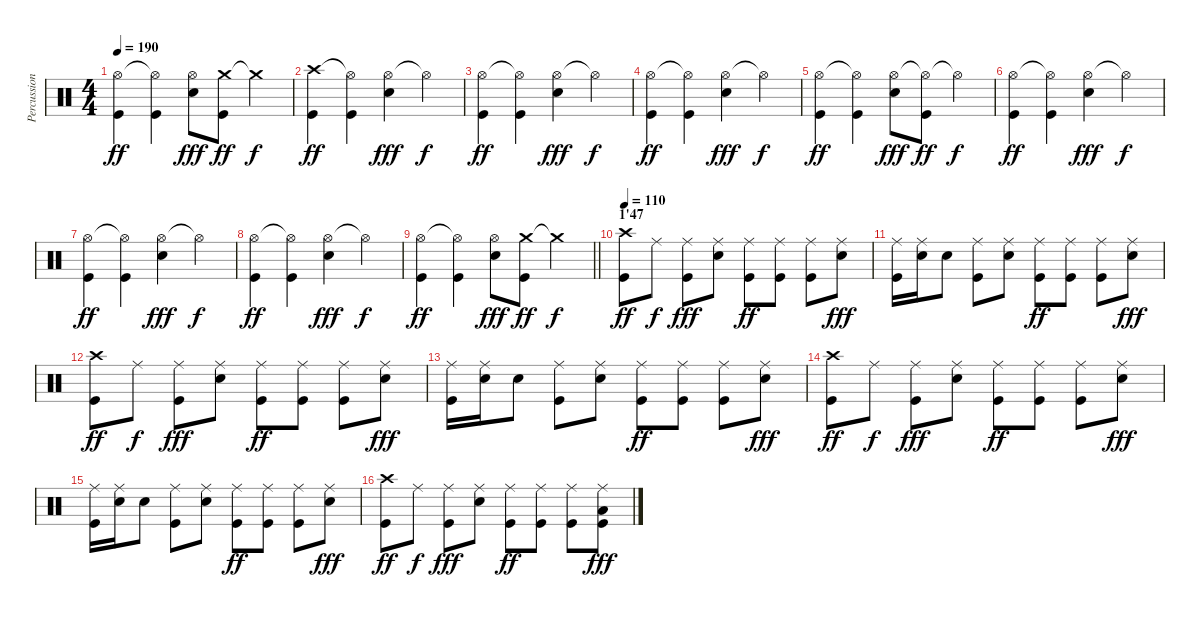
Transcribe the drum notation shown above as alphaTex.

\track ("Percussion" "Percussion") {instrument percussion}
\staff {score}
\articulation defaults
\ts (4 4)
\tempo 190
\clef neutral
\ks c
("Hi-Hat (open)" "Kick (hit)").4{dy ff} ("Hi-Hat (open)"{t} "Kick (hit)").4 ("Hi-Hat (open)" "Electric Snare (hit)").8{dy fff} ("Crash medium (hit)" "Kick (hit)").8{dy ff} "Crash medium (hit)"{t}.4{dy f} |
("Crash high (hit)" "Kick (hit)").4{dy ff} ("Hi-Hat (open)"{t} "Kick (hit)").4 ("Hi-Hat (open)" "Electric Snare (hit)").4{dy fff} "Hi-Hat (open)"{t}.4{dy f} |
("Hi-Hat (open)" "Kick (hit)").4{dy ff} ("Hi-Hat (open)"{t} "Kick (hit)").4 ("Hi-Hat (open)" "Electric Snare (hit)").4{dy fff} "Hi-Hat (open)"{t}.4{dy f} |
("Hi-Hat (open)" "Kick (hit)").4{dy ff} ("Hi-Hat (open)"{t} "Kick (hit)").4 ("Hi-Hat (open)" "Electric Snare (hit)").4{dy fff} "Hi-Hat (open)"{t}.4{dy f} |
("Hi-Hat (open)" "Kick (hit)").4{dy ff} ("Hi-Hat (open)"{t} "Kick (hit)").4 ("Hi-Hat (open)" "Electric Snare (hit)").8{dy fff} ("Hi-Hat (open)"{t} "Kick (hit)").8{dy ff} "Hi-Hat (open)"{t}.4{dy f} |
("Hi-Hat (open)" "Kick (hit)").4{dy ff} ("Hi-Hat (open)"{t} "Kick (hit)").4 ("Hi-Hat (open)" "Electric Snare (hit)").4{dy fff} "Hi-Hat (open)"{t}.4{dy f} |
("Hi-Hat (open)" "Kick (hit)").4{dy ff} ("Hi-Hat (open)"{t} "Kick (hit)").4 ("Hi-Hat (open)" "Electric Snare (hit)").4{dy fff} "Hi-Hat (open)"{t}.4{dy f} |
("Hi-Hat (open)" "Kick (hit)").4{dy ff} ("Hi-Hat (open)"{t} "Kick (hit)").4 ("Hi-Hat (open)" "Electric Snare (hit)").4{dy fff} "Hi-Hat (open)"{t}.4{dy f} |
\barLineRight lightlight
("Hi-Hat (open)" "Kick (hit)").4{dy ff} ("Hi-Hat (open)"{t} "Kick (hit)").4 ("Hi-Hat (open)" "Electric Snare (hit)").8{dy fff} ("Crash medium (hit)" "Kick (hit)").8{dy ff} "Crash medium (hit)"{t}.4{dy f} |
\section ("" "1'47")
\tempo 110
("Crash high (hit)" "Kick (hit)").8{dy ff} "Ride (middle)".8{dy f} ("Ride (middle)" "Kick (hit)").8{dy fff} ("Ride (middle)" "Electric Snare (hit)").8 ("Ride (middle)" "Kick (hit)").8{dy ff} ("Ride (middle)" "Kick (hit)").8 ("Ride (middle)" "Kick (hit)").8 ("Ride (middle)" "Electric Snare (hit)").8{dy fff} |
("Ride (middle)" "Kick (hit)").16 ("Ride (middle)" "Electric Snare (hit)").16 "Electric Snare (hit)".8 ("Ride (middle)" "Kick (hit)").8 ("Ride (middle)" "Electric Snare (hit)").8 ("Ride (middle)" "Kick (hit)").8{dy ff} ("Ride (middle)" "Kick (hit)").8 ("Ride (middle)" "Kick (hit)").8 ("Ride (middle)" "Electric Snare (hit)").8{dy fff} |
("Crash high (hit)" "Kick (hit)").8{dy ff} "Ride (middle)".8{dy f} ("Ride (middle)" "Kick (hit)").8{dy fff} ("Ride (middle)" "Electric Snare (hit)").8 ("Ride (middle)" "Kick (hit)").8{dy ff} ("Ride (middle)" "Kick (hit)").8 ("Ride (middle)" "Kick (hit)").8 ("Ride (middle)" "Electric Snare (hit)").8{dy fff} |
("Ride (middle)" "Kick (hit)").16 ("Ride (middle)" "Electric Snare (hit)").16 "Electric Snare (hit)".8 ("Ride (middle)" "Kick (hit)").8 ("Ride (middle)" "Electric Snare (hit)").8 ("Ride (middle)" "Kick (hit)").8{dy ff} ("Ride (middle)" "Kick (hit)").8 ("Ride (middle)" "Kick (hit)").8 ("Ride (middle)" "Electric Snare (hit)").8{dy fff} |
("Crash high (hit)" "Kick (hit)").8{dy ff} "Ride (middle)".8{dy f} ("Ride (middle)" "Kick (hit)").8{dy fff} ("Ride (middle)" "Electric Snare (hit)").8 ("Ride (middle)" "Kick (hit)").8{dy ff} ("Ride (middle)" "Kick (hit)").8 ("Ride (middle)" "Kick (hit)").8 ("Ride (middle)" "Electric Snare (hit)").8{dy fff} |
("Ride (middle)" "Kick (hit)").16 ("Ride (middle)" "Electric Snare (hit)").16 "Electric Snare (hit)".8 ("Ride (middle)" "Kick (hit)").8 ("Ride (middle)" "Electric Snare (hit)").8 ("Ride (middle)" "Kick (hit)").8{dy ff} ("Ride (middle)" "Kick (hit)").8 ("Ride (middle)" "Kick (hit)").8 ("Ride (middle)" "Electric Snare (hit)").8{dy fff} |
("Crash high (hit)" "Kick (hit)").8{dy ff} "Ride (middle)".8{dy f} ("Ride (middle)" "Kick (hit)").8{dy fff} ("Ride (middle)" "Electric Snare (hit)").8 ("Ride (middle)" "Kick (hit)").8{dy ff} ("Ride (middle)" "Kick (hit)").8 ("Ride (middle)" "Kick (hit)").8 ("Ride (middle)" "Low Floor Tom (hit)" "Kick (hit)").8{dy fff}
